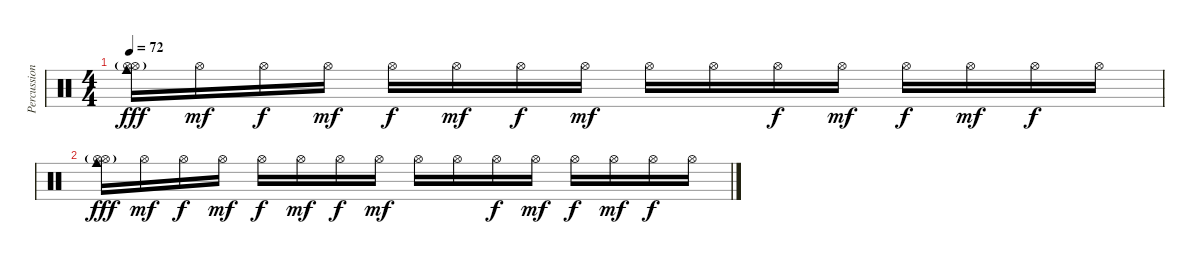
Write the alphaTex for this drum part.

\track ("Percussion" "Percussion") {instrument percussion}
\staff {score}
\articulation defaults
\ts (4 4)
\tempo 72
\clef neutral
\ks c
("Hi-Hat (open)" "Hi-Hat (open)"{g} "Cowbell medium (hit)").16{dy fff} "Hi-Hat (open)".16{dy mf} "Hi-Hat (open)".16{dy f} "Hi-Hat (open)".16{dy mf} "Hi-Hat (open)".16{dy f} "Hi-Hat (open)".16{dy mf} "Hi-Hat (open)".16{dy f} "Hi-Hat (open)".16{dy mf} "Hi-Hat (open)".16 "Hi-Hat (open)".16 "Hi-Hat (open)".16{dy f} "Hi-Hat (open)".16{dy mf} "Hi-Hat (open)".16{dy f} "Hi-Hat (open)".16{dy mf} "Hi-Hat (open)".16{dy f} "Hi-Hat (open)".16 |
("Hi-Hat (open)" "Hi-Hat (open)"{g} "Cowbell medium (hit)").16{dy fff} "Hi-Hat (open)".16{dy mf} "Hi-Hat (open)".16{dy f} "Hi-Hat (open)".16{dy mf} "Hi-Hat (open)".16{dy f} "Hi-Hat (open)".16{dy mf} "Hi-Hat (open)".16{dy f} "Hi-Hat (open)".16{dy mf} "Hi-Hat (open)".16 "Hi-Hat (open)".16 "Hi-Hat (open)".16{dy f} "Hi-Hat (open)".16{dy mf} "Hi-Hat (open)".16{dy f} "Hi-Hat (open)".16{dy mf} "Hi-Hat (open)".16{dy f} "Hi-Hat (open)".16
